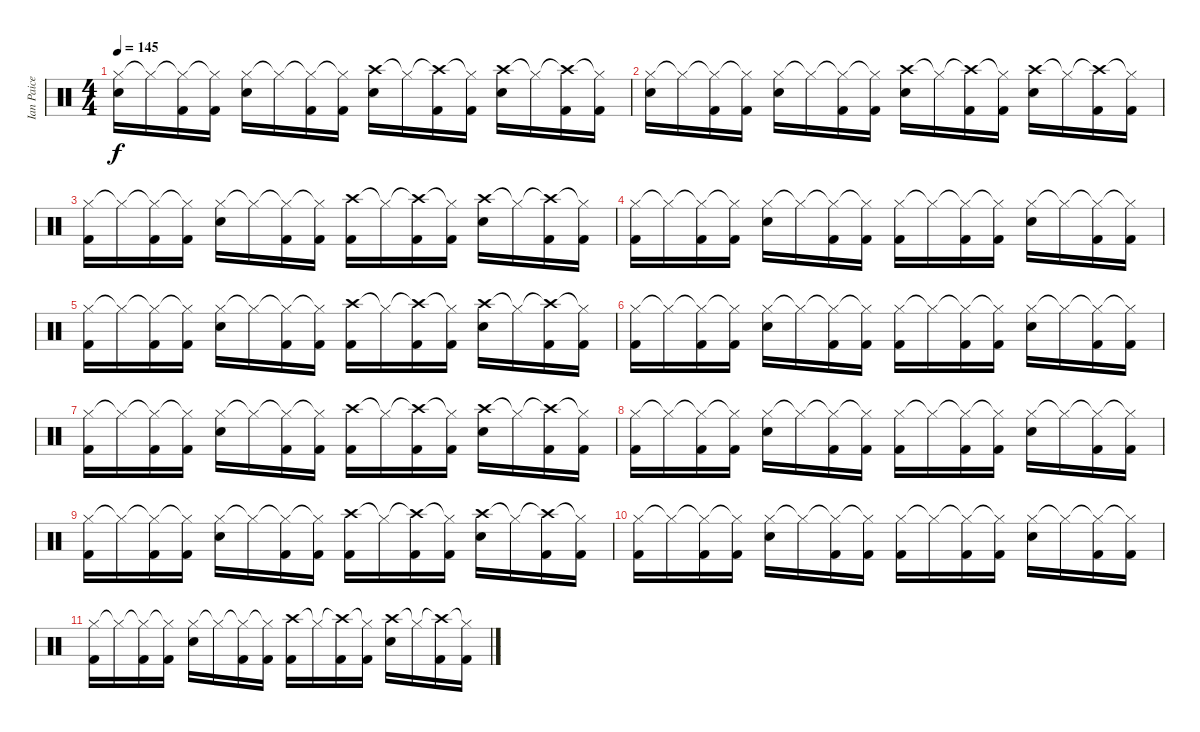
\track ("Ian Paice" "Ian Paice") {instrument percussion}
\staff {score}
\articulation defaults
\ts (4 4)
\tempo 145
\clef neutral
\ks c
("Hi-Hat (closed)" "Snare (hit) 2").16{dy f} "Hi-Hat (closed)"{t}.16 ("Hi-Hat (closed)"{t} "Kick (hit) 2").16 ("Hi-Hat (closed)"{t} "Kick (hit) 2").16 ("Hi-Hat (closed)" "Snare (hit) 2").16 "Hi-Hat (closed)"{t}.16 ("Hi-Hat (closed)"{t} "Kick (hit) 2").16 ("Hi-Hat (closed)"{t} "Kick (hit) 2").16 ("Crash high (hit)" "Snare (hit) 2").16 "Hi-Hat (closed)"{t}.16 ("Crash high (hit)"{t} "Kick (hit) 2").16 ("Hi-Hat (closed)"{t} "Kick (hit) 2").16 ("Crash high (hit)" "Snare (hit) 2").16 "Hi-Hat (closed)"{t}.16 ("Crash high (hit)"{t} "Kick (hit) 2").16 ("Hi-Hat (closed)"{t} "Kick (hit) 2").16 |
("Hi-Hat (closed)" "Snare (hit) 2").16 "Hi-Hat (closed)"{t}.16 ("Hi-Hat (closed)"{t} "Kick (hit) 2").16 ("Hi-Hat (closed)"{t} "Kick (hit) 2").16 ("Hi-Hat (closed)" "Snare (hit) 2").16 "Hi-Hat (closed)"{t}.16 ("Hi-Hat (closed)"{t} "Kick (hit) 2").16 ("Hi-Hat (closed)"{t} "Kick (hit) 2").16 ("Crash high (hit)" "Snare (hit) 2").16 "Hi-Hat (closed)"{t}.16 ("Crash high (hit)"{t} "Kick (hit) 2").16 ("Hi-Hat (closed)"{t} "Kick (hit) 2").16 ("Crash high (hit)" "Snare (hit) 2").16 "Hi-Hat (closed)"{t}.16 ("Crash high (hit)"{t} "Kick (hit) 2").16 ("Hi-Hat (closed)"{t} "Kick (hit) 2").16 |
("Hi-Hat (closed)" "Kick (hit) 2").16 "Hi-Hat (closed)"{t}.16 ("Hi-Hat (closed)"{t} "Kick (hit) 2").16 ("Hi-Hat (closed)"{t} "Kick (hit) 2").16 ("Hi-Hat (closed)" "Snare (hit) 2").16 "Hi-Hat (closed)"{t}.16 ("Hi-Hat (closed)"{t} "Kick (hit) 2").16 ("Hi-Hat (closed)"{t} "Kick (hit) 2").16 ("Crash high (hit)" "Kick (hit) 2").16 "Hi-Hat (closed)"{t}.16 ("Crash high (hit)"{t} "Kick (hit) 2").16 ("Hi-Hat (closed)"{t} "Kick (hit) 2").16 ("Crash high (hit)" "Snare (hit) 2").16 "Hi-Hat (closed)"{t}.16 ("Crash high (hit)"{t} "Kick (hit) 2").16 ("Hi-Hat (closed)"{t} "Kick (hit) 2").16 |
("Hi-Hat (closed)" "Kick (hit) 2").16 "Hi-Hat (closed)"{t}.16 ("Hi-Hat (closed)"{t} "Kick (hit) 2").16 ("Hi-Hat (closed)"{t} "Kick (hit) 2").16 ("Hi-Hat (closed)" "Snare (hit) 2").16 "Hi-Hat (closed)"{t}.16 ("Hi-Hat (closed)"{t} "Kick (hit) 2").16 ("Hi-Hat (closed)"{t} "Kick (hit) 2").16 ("Hi-Hat (closed)" "Kick (hit) 2").16 "Hi-Hat (closed)"{t}.16 ("Hi-Hat (closed)"{t} "Kick (hit) 2").16 ("Hi-Hat (closed)"{t} "Kick (hit) 2").16 ("Hi-Hat (closed)" "Snare (hit) 2").16 "Hi-Hat (closed)"{t}.16 ("Hi-Hat (closed)"{t} "Kick (hit) 2").16 ("Hi-Hat (closed)"{t} "Kick (hit) 2").16 |
("Hi-Hat (closed)" "Kick (hit) 2").16 "Hi-Hat (closed)"{t}.16 ("Hi-Hat (closed)"{t} "Kick (hit) 2").16 ("Hi-Hat (closed)"{t} "Kick (hit) 2").16 ("Hi-Hat (closed)" "Snare (hit) 2").16 "Hi-Hat (closed)"{t}.16 ("Hi-Hat (closed)"{t} "Kick (hit) 2").16 ("Hi-Hat (closed)"{t} "Kick (hit) 2").16 ("Crash high (hit)" "Kick (hit) 2").16 "Hi-Hat (closed)"{t}.16 ("Crash high (hit)"{t} "Kick (hit) 2").16 ("Hi-Hat (closed)"{t} "Kick (hit) 2").16 ("Crash high (hit)" "Snare (hit) 2").16 "Hi-Hat (closed)"{t}.16 ("Crash high (hit)"{t} "Kick (hit) 2").16 ("Hi-Hat (closed)"{t} "Kick (hit) 2").16 |
("Hi-Hat (closed)" "Kick (hit) 2").16 "Hi-Hat (closed)"{t}.16 ("Hi-Hat (closed)"{t} "Kick (hit) 2").16 ("Hi-Hat (closed)"{t} "Kick (hit) 2").16 ("Hi-Hat (closed)" "Snare (hit) 2").16 "Hi-Hat (closed)"{t}.16 ("Hi-Hat (closed)"{t} "Kick (hit) 2").16 ("Hi-Hat (closed)"{t} "Kick (hit) 2").16 ("Hi-Hat (closed)" "Kick (hit) 2").16 "Hi-Hat (closed)"{t}.16 ("Hi-Hat (closed)"{t} "Kick (hit) 2").16 ("Hi-Hat (closed)"{t} "Kick (hit) 2").16 ("Hi-Hat (closed)" "Snare (hit) 2").16 "Hi-Hat (closed)"{t}.16 ("Hi-Hat (closed)"{t} "Kick (hit) 2").16 ("Hi-Hat (closed)"{t} "Kick (hit) 2").16 |
("Hi-Hat (closed)" "Kick (hit) 2").16 "Hi-Hat (closed)"{t}.16 ("Hi-Hat (closed)"{t} "Kick (hit) 2").16 ("Hi-Hat (closed)"{t} "Kick (hit) 2").16 ("Hi-Hat (closed)" "Snare (hit) 2").16 "Hi-Hat (closed)"{t}.16 ("Hi-Hat (closed)"{t} "Kick (hit) 2").16 ("Hi-Hat (closed)"{t} "Kick (hit) 2").16 ("Crash high (hit)" "Kick (hit) 2").16 "Hi-Hat (closed)"{t}.16 ("Crash high (hit)"{t} "Kick (hit) 2").16 ("Hi-Hat (closed)"{t} "Kick (hit) 2").16 ("Crash high (hit)" "Snare (hit) 2").16 "Hi-Hat (closed)"{t}.16 ("Crash high (hit)"{t} "Kick (hit) 2").16 ("Hi-Hat (closed)"{t} "Kick (hit) 2").16 |
("Hi-Hat (closed)" "Kick (hit) 2").16 "Hi-Hat (closed)"{t}.16 ("Hi-Hat (closed)"{t} "Kick (hit) 2").16 ("Hi-Hat (closed)"{t} "Kick (hit) 2").16 ("Hi-Hat (closed)" "Snare (hit) 2").16 "Hi-Hat (closed)"{t}.16 ("Hi-Hat (closed)"{t} "Kick (hit) 2").16 ("Hi-Hat (closed)"{t} "Kick (hit) 2").16 ("Hi-Hat (closed)" "Kick (hit) 2").16 "Hi-Hat (closed)"{t}.16 ("Hi-Hat (closed)"{t} "Kick (hit) 2").16 ("Hi-Hat (closed)"{t} "Kick (hit) 2").16 ("Hi-Hat (closed)" "Snare (hit) 2").16 "Hi-Hat (closed)"{t}.16 ("Hi-Hat (closed)"{t} "Kick (hit) 2").16 ("Hi-Hat (closed)"{t} "Kick (hit) 2").16 |
("Hi-Hat (closed)" "Kick (hit) 2").16 "Hi-Hat (closed)"{t}.16 ("Hi-Hat (closed)"{t} "Kick (hit) 2").16 ("Hi-Hat (closed)"{t} "Kick (hit) 2").16 ("Hi-Hat (closed)" "Snare (hit) 2").16 "Hi-Hat (closed)"{t}.16 ("Hi-Hat (closed)"{t} "Kick (hit) 2").16 ("Hi-Hat (closed)"{t} "Kick (hit) 2").16 ("Crash high (hit)" "Kick (hit) 2").16 "Hi-Hat (closed)"{t}.16 ("Crash high (hit)"{t} "Kick (hit) 2").16 ("Hi-Hat (closed)"{t} "Kick (hit) 2").16 ("Crash high (hit)" "Snare (hit) 2").16 "Hi-Hat (closed)"{t}.16 ("Crash high (hit)"{t} "Kick (hit) 2").16 ("Hi-Hat (closed)"{t} "Kick (hit) 2").16 |
("Hi-Hat (closed)" "Kick (hit) 2").16 "Hi-Hat (closed)"{t}.16 ("Hi-Hat (closed)"{t} "Kick (hit) 2").16 ("Hi-Hat (closed)"{t} "Kick (hit) 2").16 ("Hi-Hat (closed)" "Snare (hit) 2").16 "Hi-Hat (closed)"{t}.16 ("Hi-Hat (closed)"{t} "Kick (hit) 2").16 ("Hi-Hat (closed)"{t} "Kick (hit) 2").16 ("Hi-Hat (closed)" "Kick (hit) 2").16 "Hi-Hat (closed)"{t}.16 ("Hi-Hat (closed)"{t} "Kick (hit) 2").16 ("Hi-Hat (closed)"{t} "Kick (hit) 2").16 ("Hi-Hat (closed)" "Snare (hit) 2").16 "Hi-Hat (closed)"{t}.16 ("Hi-Hat (closed)"{t} "Kick (hit) 2").16 ("Hi-Hat (closed)"{t} "Kick (hit) 2").16 |
("Hi-Hat (closed)" "Kick (hit) 2").16 "Hi-Hat (closed)"{t}.16 ("Hi-Hat (closed)"{t} "Kick (hit) 2").16 ("Hi-Hat (closed)"{t} "Kick (hit) 2").16 ("Hi-Hat (closed)" "Snare (hit) 2").16 "Hi-Hat (closed)"{t}.16 ("Hi-Hat (closed)"{t} "Kick (hit) 2").16 ("Hi-Hat (closed)"{t} "Kick (hit) 2").16 ("Crash high (hit)" "Kick (hit) 2").16 "Hi-Hat (closed)"{t}.16 ("Crash high (hit)"{t} "Kick (hit) 2").16 ("Hi-Hat (closed)"{t} "Kick (hit) 2").16 ("Crash high (hit)" "Snare (hit) 2").16 "Hi-Hat (closed)"{t}.16 ("Crash high (hit)"{t} "Kick (hit) 2").16 ("Hi-Hat (closed)"{t} "Kick (hit) 2").16
